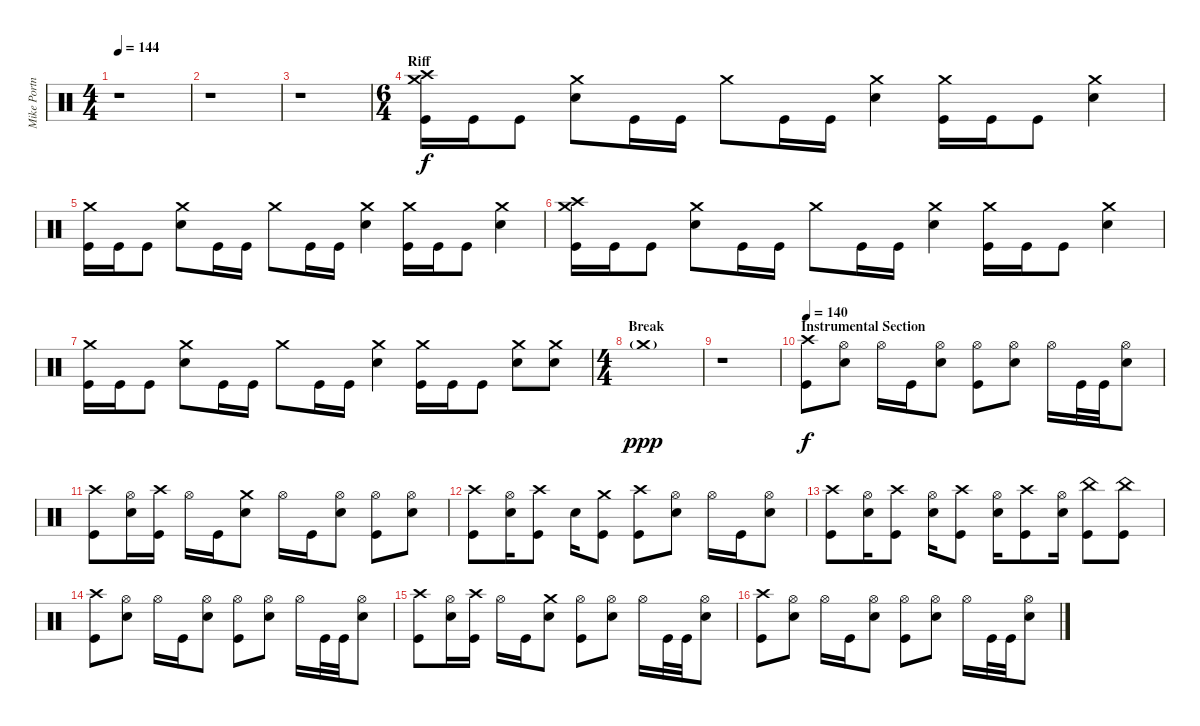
\track ("Mike Portnoy" "Mike Portn") {instrument percussion}
\staff {score}
\articulation defaults
\ts (4 4)
\tempo 144
\clef neutral
\ks c
r.1{dy f} |
r.1 |
r.1 |
\ts (6 4)
\section ("" "Riff")
("Crash high (hit)" "Crash medium (hit)" "Kick (hit)").16 "Kick (hit)".16 "Kick (hit)".8 ("Crash medium (hit)" "Electric Snare (hit)").8 "Kick (hit)".16 "Kick (hit)".16 "Crash medium (hit)".8 "Kick (hit)".16 "Kick (hit)".16 ("Crash medium (hit)" "Electric Snare (hit)").4 ("Crash medium (hit)" "Kick (hit)").16 "Kick (hit)".16 "Kick (hit)".8 ("Crash medium (hit)" "Electric Snare (hit)").4 |
("Crash medium (hit)" "Kick (hit)").16 "Kick (hit)".16 "Kick (hit)".8 ("Crash medium (hit)" "Electric Snare (hit)").8 "Kick (hit)".16 "Kick (hit)".16 "Crash medium (hit)".8 "Kick (hit)".16 "Kick (hit)".16 ("Crash medium (hit)" "Electric Snare (hit)").4 ("Crash medium (hit)" "Kick (hit)").16 "Kick (hit)".16 "Kick (hit)".8 ("Crash medium (hit)" "Electric Snare (hit)").4 |
("Crash medium (hit)" "Crash high (hit)" "Kick (hit)").16 "Kick (hit)".16 "Kick (hit)".8 ("Crash medium (hit)" "Electric Snare (hit)").8 "Kick (hit)".16 "Kick (hit)".16 "Crash medium (hit)".8 "Kick (hit)".16 "Kick (hit)".16 ("Crash medium (hit)" "Electric Snare (hit)").4 ("Crash medium (hit)" "Kick (hit)").16 "Kick (hit)".16 "Kick (hit)".8 ("Crash medium (hit)" "Electric Snare (hit)").4 |
("Crash medium (hit)" "Kick (hit)").16 "Kick (hit)".16 "Kick (hit)".8 ("Crash medium (hit)" "Electric Snare (hit)").8 "Kick (hit)".16 "Kick (hit)".16 "Crash medium (hit)".8 "Kick (hit)".16 "Kick (hit)".16 ("Crash medium (hit)" "Electric Snare (hit)").4 ("Crash medium (hit)" "Kick (hit)").16 "Kick (hit)".16 "Kick (hit)".8 ("Crash medium (hit)" "Electric Snare (hit)").8 ("Crash medium (hit)" "Electric Snare (hit)").8 |
\ts (4 4)
\section ("" "Break")
"Crash medium (hit)"{g}.1{dy ppp} |
r.1 |
\section ("" "Instrumental Section")
\tempo 140
("Crash high (hit)" "Kick (hit)").8{dy f} ("Hi-Hat (open)" "Electric Snare (hit)").8 "Hi-Hat (open)".16 "Kick (hit)".16 ("Hi-Hat (open)" "Electric Snare (hit)").8 ("Hi-Hat (open)" "Kick (hit)").8 ("Hi-Hat (open)" "Electric Snare (hit)").8 "Hi-Hat (open)".16 "Kick (hit)".32 "Kick (hit)".32 ("Hi-Hat (open)" "Electric Snare (hit)").8 |
("Crash high (hit)" "Kick (hit)").8 ("Hi-Hat (open)" "Electric Snare (hit)").16 ("Crash high (hit)" "Kick (hit)").16 "Hi-Hat (open)".16 "Kick (hit)".16 ("Crash medium (hit)" "Electric Snare (hit)").8 "Hi-Hat (open)".16 "Kick (hit)".16 ("Hi-Hat (open)" "Electric Snare (hit)").8 ("Hi-Hat (open)" "Kick (hit)").8 ("Hi-Hat (open)" "Electric Snare (hit)").8 |
("Crash high (hit)" "Kick (hit)").8 ("Hi-Hat (open)" "Electric Snare (hit)").16 ("Crash high (hit)" "Kick (hit)").8 "Electric Snare (hit)".16 ("Crash medium (hit)" "Kick (hit)").8 ("Crash high (hit)" "Kick (hit)").8 ("Hi-Hat (open)" "Electric Snare (hit)").8 "Hi-Hat (open)".16 "Kick (hit)".16 ("Hi-Hat (open)" "Electric Snare (hit)").8 |
("Crash high (hit)" "Kick (hit)").8 ("Hi-Hat (open)" "Electric Snare (hit)").16 ("Crash high (hit)" "Kick (hit)").8 ("Hi-Hat (open)" "Electric Snare (hit)").16 ("Crash high (hit)" "Kick (hit)").8 ("Hi-Hat (open)" "Electric Snare (hit)").16 ("Crash high (hit)" "Kick (hit)").8 ("Hi-Hat (open)" "Electric Snare (hit)").16 ("China (hit)" "Kick (hit)").8 ("China (hit)" "Kick (hit)").8 |
("Crash high (hit)" "Kick (hit)").8 ("Hi-Hat (open)" "Electric Snare (hit)").8 "Hi-Hat (open)".16 "Kick (hit)".16 ("Hi-Hat (open)" "Electric Snare (hit)").8 ("Hi-Hat (open)" "Kick (hit)").8 ("Hi-Hat (open)" "Electric Snare (hit)").8 "Hi-Hat (open)".16 "Kick (hit)".32 "Kick (hit)".32 ("Hi-Hat (open)" "Electric Snare (hit)").8 |
("Crash high (hit)" "Kick (hit)").8 ("Hi-Hat (open)" "Electric Snare (hit)").16 ("Crash high (hit)" "Kick (hit)").16 "Hi-Hat (open)".16 "Kick (hit)".16 ("Crash medium (hit)" "Electric Snare (hit)").8 ("Hi-Hat (open)" "Kick (hit)").8 ("Hi-Hat (open)" "Electric Snare (hit)").8 "Hi-Hat (open)".16 "Kick (hit)".32 "Kick (hit)".32 ("Hi-Hat (open)" "Electric Snare (hit)").8 |
("Crash high (hit)" "Kick (hit)").8 ("Hi-Hat (open)" "Electric Snare (hit)").8 "Hi-Hat (open)".16 "Kick (hit)".16 ("Hi-Hat (open)" "Electric Snare (hit)").8 ("Hi-Hat (open)" "Kick (hit)").8 ("Hi-Hat (open)" "Electric Snare (hit)").8 "Hi-Hat (open)".16 "Kick (hit)".32 "Kick (hit)".32 ("Hi-Hat (open)" "Electric Snare (hit)").8
